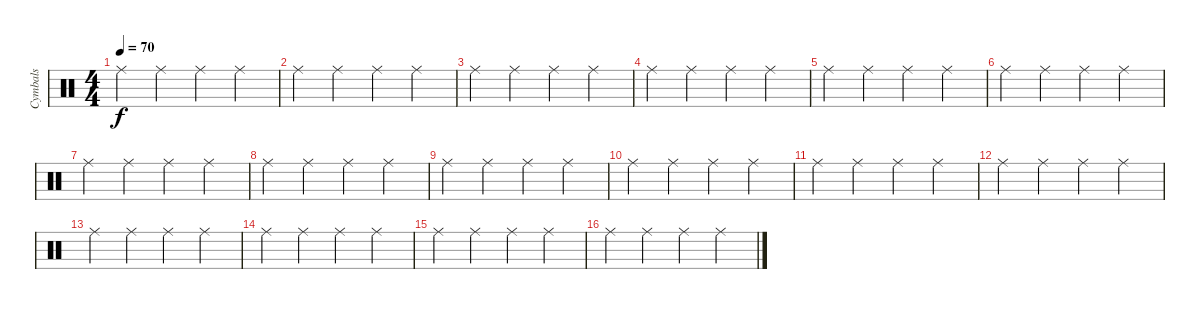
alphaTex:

\track ("Cymbals" "Cymbals") {instrument percussion}
\staff {score}
\articulation defaults
\ts (4 4)
\tempo 70
\clef neutral
\ks c "Ride (middle)".4{dy f} "Ride (middle)".4 "Ride (middle)".4 "Ride (middle)".4
|
"Ride (middle)".4 "Ride (middle)".4 "Ride (middle)".4 "Ride (middle)".4 |
"Ride (middle)".4 "Ride (middle)".4 "Ride (middle)".4 "Ride (middle)".4 |
"Ride (middle)".4 "Ride (middle)".4 "Ride (middle)".4 "Ride (middle)".4 |
"Ride (middle)".4 "Ride (middle)".4 "Ride (middle)".4 "Ride (middle)".4 |
"Ride (middle)".4 "Ride (middle)".4 "Ride (middle)".4 "Ride (middle)".4 |
"Ride (middle)".4 "Ride (middle)".4 "Ride (middle)".4 "Ride (middle)".4 |
"Ride (middle)".4 "Ride (middle)".4 "Ride (middle)".4 "Ride (middle)".4 |
"Ride (middle)".4 "Ride (middle)".4 "Ride (middle)".4 "Ride (middle)".4 |
"Ride (middle)".4 "Ride (middle)".4 "Ride (middle)".4 "Ride (middle)".4 |
"Ride (middle)".4 "Ride (middle)".4 "Ride (middle)".4 "Ride (middle)".4 |
"Ride (middle)".4 "Ride (middle)".4 "Ride (middle)".4 "Ride (middle)".4 |
"Ride (middle)".4 "Ride (middle)".4 "Ride (middle)".4 "Ride (middle)".4 |
"Ride (middle)".4 "Ride (middle)".4 "Ride (middle)".4 "Ride (middle)".4 |
"Ride (middle)".4 "Ride (middle)".4 "Ride (middle)".4 "Ride (middle)".4 |
"Ride (middle)".4 "Ride (middle)".4 "Ride (middle)".4 "Ride (middle)".4
